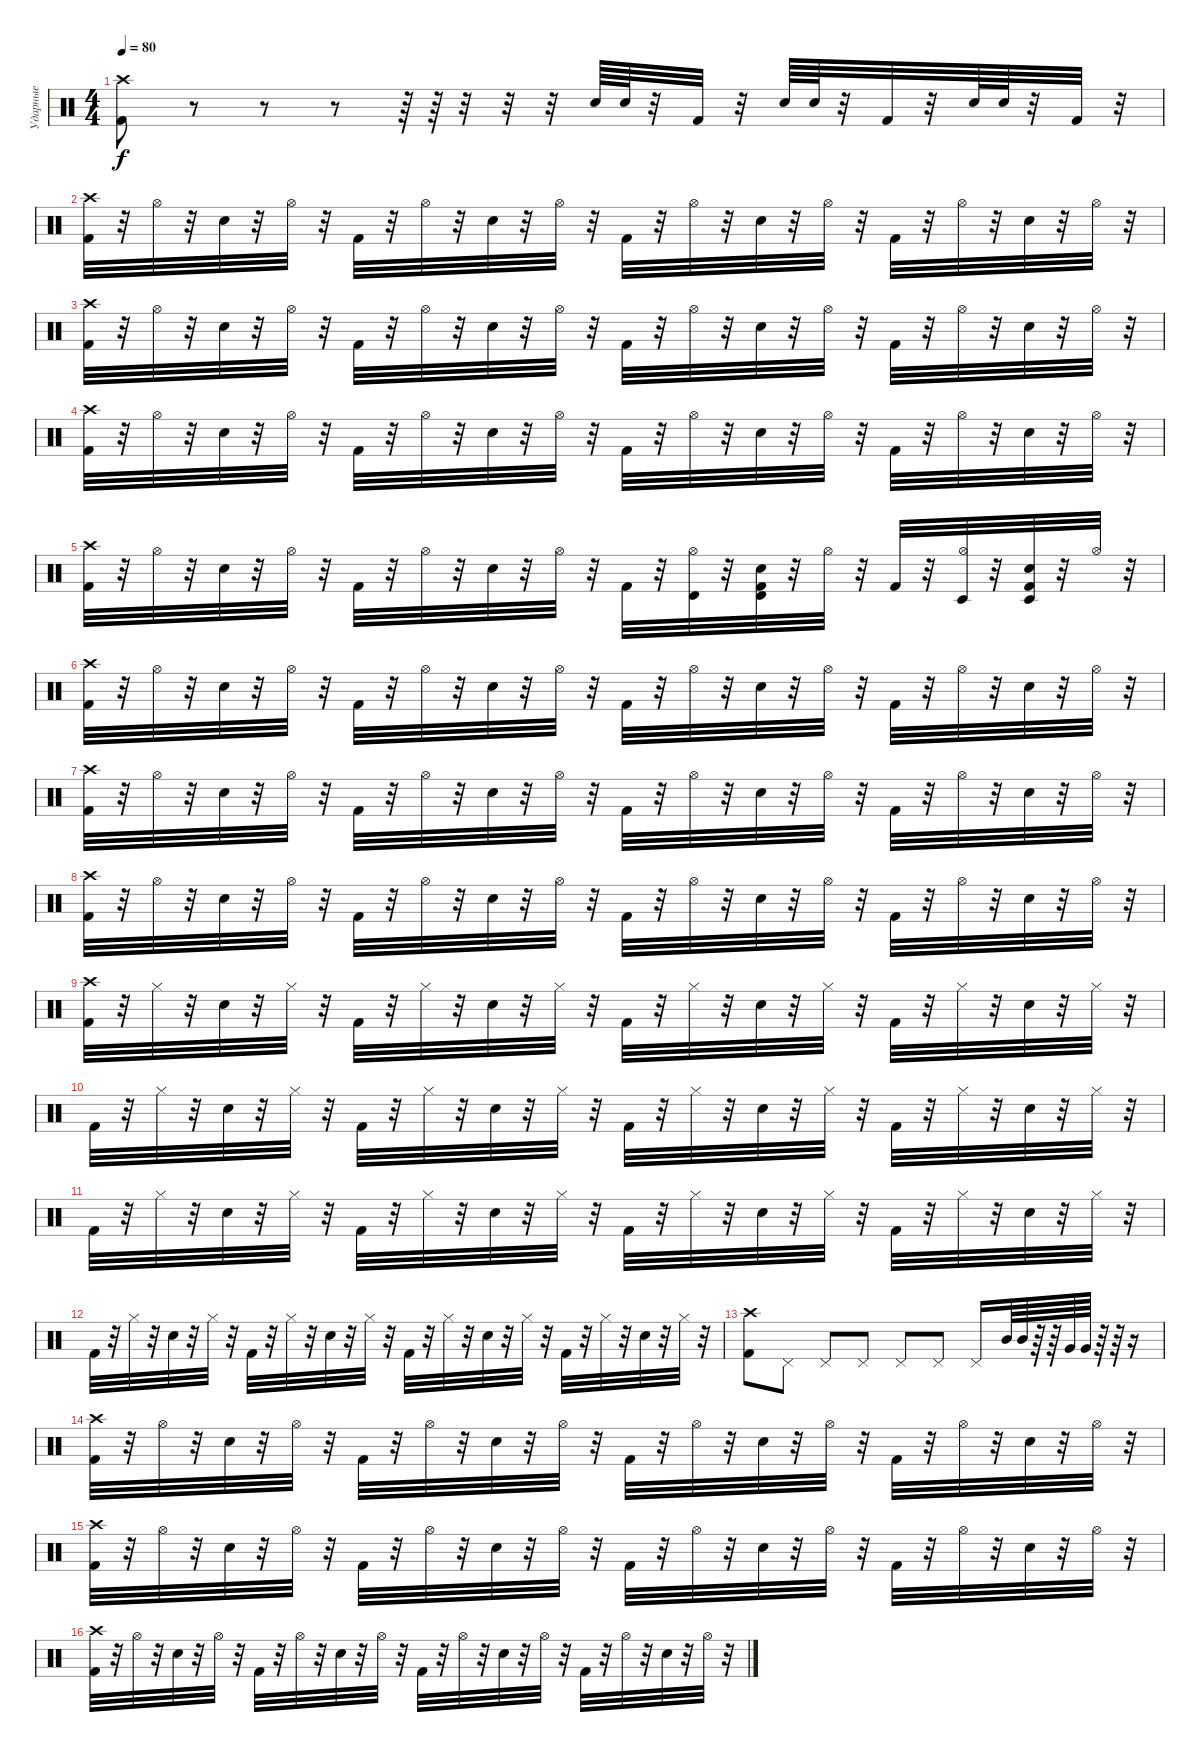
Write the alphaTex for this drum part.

\track ("Ударные" "Ударные") {instrument percussion}
\staff {score}
\articulation defaults
\ts (4 4)
\tempo 80
\clef neutral
\ks c
("Crash high (hit)" "Kick (hit) 2").8{dy f} r.8 r.8 r.8 r.64 r.64 r.32 r.32 r.32 "Snare (hit) 2".64 "Snare (hit) 2".64 r.32 "Kick (hit) 2".32 r.32 "Snare (hit) 2".64 "Snare (hit) 2".64 r.32 "Kick (hit) 2".32 r.32 "Snare (hit) 2".64 "Snare (hit) 2".64 r.32 "Kick (hit) 2".32 r.32 |
("Crash high (hit)" "Kick (hit) 2").32 r.32 "Hi-Hat (open)".32 r.32 "Snare (hit) 2".32 r.32 "Hi-Hat (open)".32 r.32 "Kick (hit) 2".32 r.32 "Hi-Hat (open)".32 r.32 "Snare (hit) 2".32 r.32 "Hi-Hat (open)".32 r.32 "Kick (hit) 2".32 r.32 "Hi-Hat (open)".32 r.32 "Snare (hit) 2".32 r.32 "Hi-Hat (open)".32 r.32 "Kick (hit) 2".32 r.32 "Hi-Hat (open)".32 r.32 "Snare (hit) 2".32 r.32 "Hi-Hat (open)".32 r.32 |
("Crash high (hit)" "Kick (hit) 2").32 r.32 "Hi-Hat (open)".32 r.32 "Snare (hit) 2".32 r.32 "Hi-Hat (open)".32 r.32 "Kick (hit) 2".32 r.32 "Hi-Hat (open)".32 r.32 "Snare (hit) 2".32 r.32 "Hi-Hat (open)".32 r.32 "Kick (hit) 2".32 r.32 "Hi-Hat (open)".32 r.32 "Snare (hit) 2".32 r.32 "Hi-Hat (open)".32 r.32 "Kick (hit) 2".32 r.32 "Hi-Hat (open)".32 r.32 "Snare (hit) 2".32 r.32 "Hi-Hat (open)".32 r.32 |
("Crash high (hit)" "Kick (hit) 2").32 r.32 "Hi-Hat (open)".32 r.32 "Snare (hit) 2".32 r.32 "Hi-Hat (open)".32 r.32 "Kick (hit) 2".32 r.32 "Hi-Hat (open)".32 r.32 "Snare (hit) 2".32 r.32 "Hi-Hat (open)".32 r.32 "Kick (hit) 2".32 r.32 "Hi-Hat (open)".32 r.32 "Snare (hit) 2".32 r.32 "Hi-Hat (open)".32 r.32 "Kick (hit) 2".32 r.32 "Hi-Hat (open)".32 r.32 "Snare (hit) 2".32 r.32 "Hi-Hat (open)".32 r.32 |
("Crash high (hit)" "Kick (hit) 2").32 r.32 "Hi-Hat (open)".32 r.32 "Snare (hit) 2".32 r.32 "Hi-Hat (open)".32 r.32 "Kick (hit) 2".32 r.32 "Hi-Hat (open)".32 r.32 "Snare (hit) 2".32 r.32 "Hi-Hat (open)".32 r.32 "Kick (hit) 2".32 r.32 ("Hi-Hat (open)" "Timbale high (hit)").32 r.32 ("Snare (hit) 2" "Kick (hit) 2" "Timbale high (hit)").32 r.32 "Hi-Hat (open)".32 r.32 "Kick (hit) 2".32 r.32 ("Hi-Hat (open)" "Timbale low (hit)").32 r.32 ("Snare (hit) 2" "Kick (hit) 2" "Timbale low (hit)").32 r.32 "Hi-Hat (open)".32 r.32 |
("Crash high (hit)" "Kick (hit) 2").32 r.32 "Hi-Hat (open)".32 r.32 "Snare (hit) 2".32 r.32 "Hi-Hat (open)".32 r.32 "Kick (hit) 2".32 r.32 "Hi-Hat (open)".32 r.32 "Snare (hit) 2".32 r.32 "Hi-Hat (open)".32 r.32 "Kick (hit) 2".32 r.32 "Hi-Hat (open)".32 r.32 "Snare (hit) 2".32 r.32 "Hi-Hat (open)".32 r.32 "Kick (hit) 2".32 r.32 "Hi-Hat (open)".32 r.32 "Snare (hit) 2".32 r.32 "Hi-Hat (open)".32 r.32 |
("Crash high (hit)" "Kick (hit) 2").32 r.32 "Hi-Hat (open)".32 r.32 "Snare (hit) 2".32 r.32 "Hi-Hat (open)".32 r.32 "Kick (hit) 2".32 r.32 "Hi-Hat (open)".32 r.32 "Snare (hit) 2".32 r.32 "Hi-Hat (open)".32 r.32 "Kick (hit) 2".32 r.32 "Hi-Hat (open)".32 r.32 "Snare (hit) 2".32 r.32 "Hi-Hat (open)".32 r.32 "Kick (hit) 2".32 r.32 "Hi-Hat (open)".32 r.32 "Snare (hit) 2".32 r.32 "Hi-Hat (open)".32 r.32 |
("Crash high (hit)" "Kick (hit) 2").32 r.32 "Hi-Hat (open)".32 r.32 "Snare (hit) 2".32 r.32 "Hi-Hat (open)".32 r.32 "Kick (hit) 2".32 r.32 "Hi-Hat (open)".32 r.32 "Snare (hit) 2".32 r.32 "Hi-Hat (open)".32 r.32 "Kick (hit) 2".32 r.32 "Hi-Hat (open)".32 r.32 "Snare (hit) 2".32 r.32 "Hi-Hat (open)".32 r.32 "Kick (hit) 2".32 r.32 "Hi-Hat (open)".32 r.32 "Snare (hit) 2".32 r.32 "Hi-Hat (open)".32 r.32 |
("Crash high (hit)" "Kick (hit) 2").32 r.32 "Hi-Hat (closed)".32 r.32 "Snare (hit) 2".32 r.32 "Hi-Hat (closed)".32 r.32 "Kick (hit) 2".32 r.32 "Hi-Hat (closed)".32 r.32 "Snare (hit) 2".32 r.32 "Hi-Hat (closed)".32 r.32 "Kick (hit) 2".32 r.32 "Hi-Hat (closed)".32 r.32 "Snare (hit) 2".32 r.32 "Hi-Hat (closed)".32 r.32 "Kick (hit) 2".32 r.32 "Hi-Hat (closed)".32 r.32 "Snare (hit) 2".32 r.32 "Hi-Hat (closed)".32 r.32 |
"Kick (hit) 2".32 r.32 "Hi-Hat (closed)".32 r.32 "Snare (hit) 2".32 r.32 "Hi-Hat (closed)".32 r.32 "Kick (hit) 2".32 r.32 "Hi-Hat (closed)".32 r.32 "Snare (hit) 2".32 r.32 "Hi-Hat (closed)".32 r.32 "Kick (hit) 2".32 r.32 "Hi-Hat (closed)".32 r.32 "Snare (hit) 2".32 r.32 "Hi-Hat (closed)".32 r.32 "Kick (hit) 2".32 r.32 "Hi-Hat (closed)".32 r.32 "Snare (hit) 2".32 r.32 "Hi-Hat (closed)".32 r.32 |
"Kick (hit) 2".32 r.32 "Hi-Hat (closed)".32 r.32 "Snare (hit) 2".32 r.32 "Hi-Hat (closed)".32 r.32 "Kick (hit) 2".32 r.32 "Hi-Hat (closed)".32 r.32 "Snare (hit) 2".32 r.32 "Hi-Hat (closed)".32 r.32 "Kick (hit) 2".32 r.32 "Hi-Hat (closed)".32 r.32 "Snare (hit) 2".32 r.32 "Hi-Hat (closed)".32 r.32 "Kick (hit) 2".32 r.32 "Hi-Hat (closed)".32 r.32 "Snare (hit) 2".32 r.32 "Hi-Hat (closed)".32 r.32 |
"Kick (hit) 2".32 r.32 "Hi-Hat (closed)".32 r.32 "Snare (hit) 2".32 r.32 "Hi-Hat (closed)".32 r.32 "Kick (hit) 2".32 r.32 "Hi-Hat (closed)".32 r.32 "Snare (hit) 2".32 r.32 "Hi-Hat (closed)".32 r.32 "Kick (hit) 2".32 r.32 "Hi-Hat (closed)".32 r.32 "Snare (hit) 2".32 r.32 "Hi-Hat (closed)".32 r.32 "Kick (hit) 2".32 r.32 "Hi-Hat (closed)".32 r.32 "Snare (hit) 2".32 r.32 "Hi-Hat (closed)".32 r.32 |
("Crash high (hit)" "Kick (hit) 2").8 "Pedal Hi-Hat (hit)".8 "Pedal Hi-Hat (hit)".8 "Pedal Hi-Hat (hit)".8 "Pedal Hi-Hat (hit)".8 "Pedal Hi-Hat (hit)".8 "Pedal Hi-Hat (hit)".16 "Mid Tom (hit)".64 "Mid Tom (hit)".64 r.64 r.64 "Very Low Tom (hit)".64 "Very Low Tom (hit)".64 r.64 r.64 r.16 |
("Crash high (hit)" "Kick (hit) 2").32 r.32 "Hi-Hat (open)".32 r.32 "Snare (hit) 2".32 r.32 "Hi-Hat (open)".32 r.32 "Kick (hit) 2".32 r.32 "Hi-Hat (open)".32 r.32 "Snare (hit) 2".32 r.32 "Hi-Hat (open)".32 r.32 "Kick (hit) 2".32 r.32 "Hi-Hat (open)".32 r.32 "Snare (hit) 2".32 r.32 "Hi-Hat (open)".32 r.32 "Kick (hit) 2".32 r.32 "Hi-Hat (open)".32 r.32 "Snare (hit) 2".32 r.32 "Hi-Hat (open)".32 r.32 |
("Crash high (hit)" "Kick (hit) 2").32 r.32 "Hi-Hat (open)".32 r.32 "Snare (hit) 2".32 r.32 "Hi-Hat (open)".32 r.32 "Kick (hit) 2".32 r.32 "Hi-Hat (open)".32 r.32 "Snare (hit) 2".32 r.32 "Hi-Hat (open)".32 r.32 "Kick (hit) 2".32 r.32 "Hi-Hat (open)".32 r.32 "Snare (hit) 2".32 r.32 "Hi-Hat (open)".32 r.32 "Kick (hit) 2".32 r.32 "Hi-Hat (open)".32 r.32 "Snare (hit) 2".32 r.32 "Hi-Hat (open)".32 r.32 |
("Crash high (hit)" "Kick (hit) 2").32 r.32 "Hi-Hat (open)".32 r.32 "Snare (hit) 2".32 r.32 "Hi-Hat (open)".32 r.32 "Kick (hit) 2".32 r.32 "Hi-Hat (open)".32 r.32 "Snare (hit) 2".32 r.32 "Hi-Hat (open)".32 r.32 "Kick (hit) 2".32 r.32 "Hi-Hat (open)".32 r.32 "Snare (hit) 2".32 r.32 "Hi-Hat (open)".32 r.32 "Kick (hit) 2".32 r.32 "Hi-Hat (open)".32 r.32 "Snare (hit) 2".32 r.32 "Hi-Hat (open)".32 r.32
